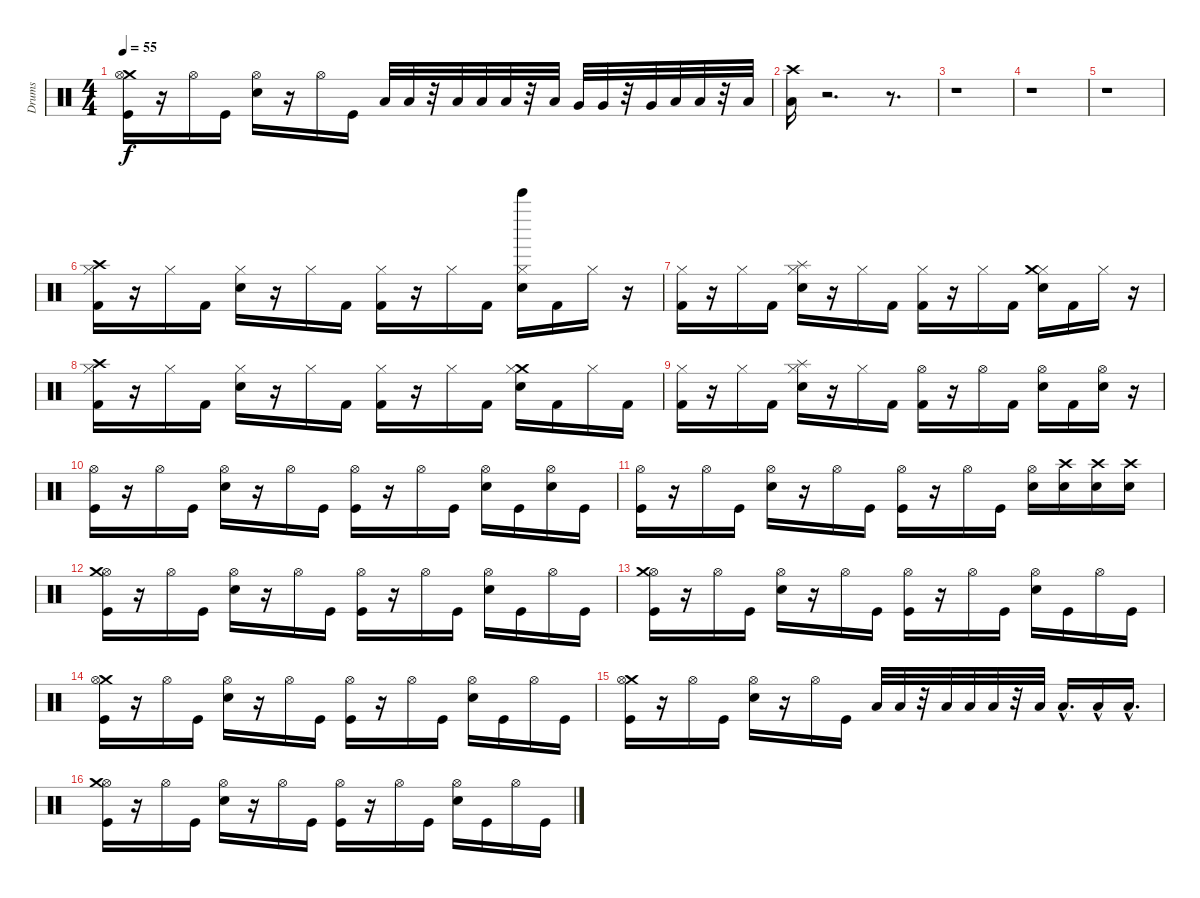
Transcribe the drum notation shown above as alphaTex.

\track ("Drums" "Drums") {instrument percussion}
\staff {score}
\articulation defaults
\ts (4 4)
\tempo 55
\clef neutral
\ks c
("Crash medium (hit)" "Kick (hit)" "Hi-Hat (open)").16{dy f} r.16 "Hi-Hat (open)".16 "Kick (hit)".16 ("Electric Snare (hit)" "Hi-Hat (open)").16 r.16 "Hi-Hat (open)".16 "Kick (hit)".16 "Low Tom (hit)".32 "Low Tom (hit)".32 r.32 "Low Tom (hit)".32 "Low Tom (hit)".32 "Low Tom (hit)".32 r.32 "Low Tom (hit)".32 "Very Low Tom (hit)".32 "Very Low Tom (hit)".32 r.32 "Very Low Tom (hit)".32 "Low Floor Tom (hit)".32 "Low Floor Tom (hit)".32 r.32 "Low Floor Tom (hit)".32 |
("Low Floor Tom (hit)" "Crash high (hit)").16 r.2{d} r.8{d} |
r.1 |
r.1 |
r.1 |
("Crash high (hit)" "Hi-Hat (closed)" "Kick (hit) 2").16 r.16 "Hi-Hat (closed)".16 "Kick (hit) 2".16 ("Hi-Hat (closed)" "Electric Snare (hit)").16 r.16 "Hi-Hat (closed)".16 "Kick (hit) 2".16 ("Kick (hit) 2" "Hi-Hat (closed)").16 r.16 "Hi-Hat (closed)".16 "Kick (hit) 2".16 ("Bell Tree (hit)" "Hi-Hat (closed)" "Electric Snare (hit)").16 "Kick (hit) 2".16 "Hi-Hat (closed)".16 r.16 |
("Kick (hit) 2" "Hi-Hat (closed)").16 r.16 "Hi-Hat (closed)".16 "Kick (hit) 2".16 ("Electric Snare (hit)" "Splash (hit)" "Hi-Hat (closed)").16 r.16 "Hi-Hat (closed)".16 "Kick (hit) 2".16 ("Hi-Hat (closed)" "Kick (hit) 2").16 r.16 "Hi-Hat (closed)".16 "Kick (hit) 2".16 ("Hi-Hat (closed)" "Crash medium (hit)" "Electric Snare (hit)").16 "Kick (hit) 2".16 "Hi-Hat (closed)".16 r.16 |
("Crash high (hit)" "Hi-Hat (closed)" "Kick (hit) 2").16 r.16 "Hi-Hat (closed)".16 "Kick (hit) 2".16 ("Electric Snare (hit)" "Hi-Hat (closed)").16 r.16 "Hi-Hat (closed)".16 "Kick (hit) 2".16 ("Hi-Hat (closed)" "Kick (hit) 2").16 r.16 "Hi-Hat (closed)".16 "Kick (hit) 2".16 ("Crash medium (hit)" "Hi-Hat (closed)" "Electric Snare (hit)").16 "Kick (hit) 2".16 "Hi-Hat (closed)".16 "Kick (hit) 2".16 |
("Hi-Hat (closed)" "Kick (hit) 2").16 r.16 "Hi-Hat (closed)".16 "Kick (hit) 2".16 ("Splash (hit)" "Electric Snare (hit)" "Hi-Hat (closed)").16 r.16 "Hi-Hat (closed)".16 "Kick (hit) 2".16 ("Kick (hit) 2" "Hi-Hat (open)").16 r.16 "Hi-Hat (open)".16 "Kick (hit) 2".16 ("Hi-Hat (open)" "Metronome (bell)").16 "Kick (hit) 2".16 ("Hi-Hat (open)" "Metronome (bell)").16 r.16 |
("Hi-Hat (open)" "Kick (hit)").16 r.16 "Hi-Hat (open)".16 "Kick (hit)".16 ("Hi-Hat (open)" "Electric Snare (hit)").16 r.16 "Hi-Hat (open)".16 "Kick (hit)".16 ("Kick (hit)" "Hi-Hat (open)").16 r.16 "Hi-Hat (open)".16 "Kick (hit)".16 ("Electric Snare (hit)" "Hi-Hat (open)").16 "Kick (hit)".16 ("Electric Snare (hit)" "Hi-Hat (open)").16 "Kick (hit)".16 |
("Kick (hit)" "Hi-Hat (open)").16 r.16 "Hi-Hat (open)".16 "Kick (hit)".16 ("Electric Snare (hit)" "Hi-Hat (open)").16 r.16 "Hi-Hat (open)".16 "Kick (hit)".16 ("Kick (hit)" "Hi-Hat (open)").16 r.16 "Hi-Hat (open)".16 "Kick (hit)".16 ("Electric Snare (hit)" "Hi-Hat (open)").16 ("Crash high (hit)" "Electric Snare (hit)").16 ("Crash high (hit)" "Electric Snare (hit)").16 ("Electric Snare (hit)" "Crash high (hit)").16 |
("Kick (hit)" "Hi-Hat (open)" "Crash medium (hit)").16 r.16 "Hi-Hat (open)".16 "Kick (hit)".16 ("Hi-Hat (open)" "Electric Snare (hit)").16 r.16 "Hi-Hat (open)".16 "Kick (hit)".16 ("Kick (hit)" "Hi-Hat (open)").16 r.16 "Hi-Hat (open)".16 "Kick (hit)".16 ("Electric Snare (hit)" "Hi-Hat (open)").16 "Kick (hit)".16 "Hi-Hat (open)".16 "Kick (hit)".16 |
("Hi-Hat (open)" "Crash medium (hit)" "Kick (hit)").16 r.16 "Hi-Hat (open)".16 "Kick (hit)".16 ("Electric Snare (hit)" "Hi-Hat (open)").16 r.16 "Hi-Hat (open)".16 "Kick (hit)".16 ("Hi-Hat (open)" "Kick (hit)").16 r.16 "Hi-Hat (open)".16 "Kick (hit)".16 ("Hi-Hat (open)" "Electric Snare (hit)").16 "Kick (hit)".16 "Hi-Hat (open)".16 "Kick (hit)".16 |
("Crash medium (hit)" "Hi-Hat (open)" "Kick (hit)").16 r.16 "Hi-Hat (open)".16 "Kick (hit)".16 ("Electric Snare (hit)" "Hi-Hat (open)").16 r.16 "Hi-Hat (open)".16 "Kick (hit)".16 ("Kick (hit)" "Hi-Hat (open)").16 r.16 "Hi-Hat (open)".16 "Kick (hit)".16 ("Electric Snare (hit)" "Hi-Hat (open)").16 "Kick (hit)".16 "Hi-Hat (open)".16 "Kick (hit)".16 |
("Kick (hit)" "Crash medium (hit)" "Hi-Hat (open)").16 r.16 "Hi-Hat (open)".16 "Kick (hit)".16 ("Electric Snare (hit)" "Hi-Hat (open)").16 r.16 "Hi-Hat (open)".16 "Kick (hit)".16 "Low Tom (hit)".32 "Low Tom (hit)".32 r.32 "Low Tom (hit)".32 "Low Tom (hit)".32 "Low Tom (hit)".32 r.32 "Low Tom (hit)".32 "Low Tom (hit)"{hac}.16{d} "Low Tom (hit)"{hac}.16 "Low Tom (hit)"{hac}.16{d} |
("Kick (hit)" "Hi-Hat (open)" "Crash medium (hit)").16 r.16 "Hi-Hat (open)".16 "Kick (hit)".16 ("Hi-Hat (open)" "Electric Snare (hit)").16 r.16 "Hi-Hat (open)".16 "Kick (hit)".16 ("Hi-Hat (open)" "Kick (hit)").16 r.16 "Hi-Hat (open)".16 "Kick (hit)".16 ("Electric Snare (hit)" "Hi-Hat (open)").16 "Kick (hit)".16 "Hi-Hat (open)".16 "Kick (hit)".16
